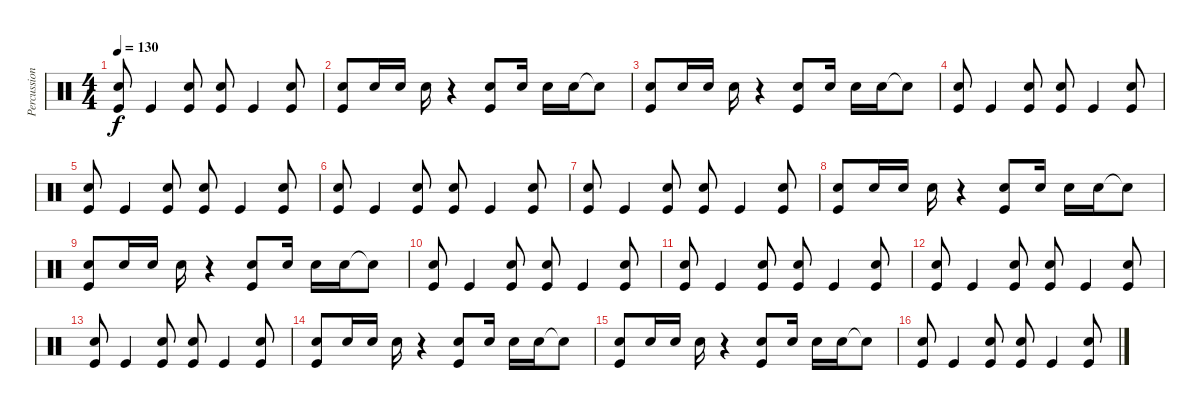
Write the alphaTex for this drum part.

\track ("Percussion" "Percussion") {instrument percussion}
\staff {score}
\articulation defaults
\ts (4 4)
\tempo 130
\clef neutral
\ks c
("Kick (hit)" "Snare (hit) 2").8{dy f} "Kick (hit)".4 ("Kick (hit)" "Snare (hit) 2").8 ("Kick (hit)" "Snare (hit) 2").8 "Kick (hit)".4 ("Kick (hit)" "Snare (hit) 2").8 |
("Kick (hit)" "Snare (hit) 2").8 "Snare (hit) 2".16 "Snare (hit) 2".16 "Snare (hit) 2".16 r.4 ("Kick (hit)" "Snare (hit) 2").8 "Snare (hit) 2".16 "Snare (hit) 2".16 "Snare (hit) 2".16 "Snare (hit)"{t}.8 |
("Kick (hit)" "Snare (hit) 2").8 "Snare (hit) 2".16 "Snare (hit) 2".16 "Snare (hit) 2".16 r.4 ("Kick (hit)" "Snare (hit) 2").8 "Snare (hit) 2".16 "Snare (hit) 2".16 "Snare (hit) 2".16 "Snare (hit)"{t}.8 |
("Kick (hit)" "Snare (hit) 2").8 "Kick (hit)".4 ("Kick (hit)" "Snare (hit) 2").8 ("Kick (hit)" "Snare (hit) 2").8 "Kick (hit)".4 ("Kick (hit)" "Snare (hit) 2").8 |
("Kick (hit)" "Snare (hit) 2").8 "Kick (hit)".4 ("Kick (hit)" "Snare (hit) 2").8 ("Kick (hit)" "Snare (hit) 2").8 "Kick (hit)".4 ("Kick (hit)" "Snare (hit) 2").8 |
("Kick (hit)" "Snare (hit) 2").8 "Kick (hit)".4 ("Kick (hit)" "Snare (hit) 2").8 ("Kick (hit)" "Snare (hit) 2").8 "Kick (hit)".4 ("Kick (hit)" "Snare (hit) 2").8 |
("Kick (hit)" "Snare (hit) 2").8 "Kick (hit)".4 ("Kick (hit)" "Snare (hit) 2").8 ("Kick (hit)" "Snare (hit) 2").8 "Kick (hit)".4 ("Kick (hit)" "Snare (hit) 2").8 |
("Kick (hit)" "Snare (hit) 2").8 "Snare (hit) 2".16 "Snare (hit) 2".16 "Snare (hit) 2".16 r.4 ("Kick (hit)" "Snare (hit) 2").8 "Snare (hit) 2".16 "Snare (hit) 2".16 "Snare (hit) 2".16 "Snare (hit)"{t}.8 |
("Kick (hit)" "Snare (hit) 2").8 "Snare (hit) 2".16 "Snare (hit) 2".16 "Snare (hit) 2".16 r.4 ("Kick (hit)" "Snare (hit) 2").8 "Snare (hit) 2".16 "Snare (hit) 2".16 "Snare (hit) 2".16 "Snare (hit)"{t}.8 |
("Kick (hit)" "Snare (hit) 2").8 "Kick (hit)".4 ("Kick (hit)" "Snare (hit) 2").8 ("Kick (hit)" "Snare (hit) 2").8 "Kick (hit)".4 ("Kick (hit)" "Snare (hit) 2").8 |
("Kick (hit)" "Snare (hit) 2").8 "Kick (hit)".4 ("Kick (hit)" "Snare (hit) 2").8 ("Kick (hit)" "Snare (hit) 2").8 "Kick (hit)".4 ("Kick (hit)" "Snare (hit) 2").8 |
("Kick (hit)" "Snare (hit) 2").8 "Kick (hit)".4 ("Kick (hit)" "Snare (hit) 2").8 ("Kick (hit)" "Snare (hit) 2").8 "Kick (hit)".4 ("Kick (hit)" "Snare (hit) 2").8 |
("Kick (hit)" "Snare (hit) 2").8 "Kick (hit)".4 ("Kick (hit)" "Snare (hit) 2").8 ("Kick (hit)" "Snare (hit) 2").8 "Kick (hit)".4 ("Kick (hit)" "Snare (hit) 2").8 |
("Kick (hit)" "Snare (hit) 2").8 "Snare (hit) 2".16 "Snare (hit) 2".16 "Snare (hit) 2".16 r.4 ("Kick (hit)" "Snare (hit) 2").8 "Snare (hit) 2".16 "Snare (hit) 2".16 "Snare (hit) 2".16 "Snare (hit)"{t}.8 |
("Kick (hit)" "Snare (hit) 2").8 "Snare (hit) 2".16 "Snare (hit) 2".16 "Snare (hit) 2".16 r.4 ("Kick (hit)" "Snare (hit) 2").8 "Snare (hit) 2".16 "Snare (hit) 2".16 "Snare (hit) 2".16 "Snare (hit)"{t}.8 |
("Kick (hit)" "Snare (hit) 2").8 "Kick (hit)".4 ("Kick (hit)" "Snare (hit) 2").8 ("Kick (hit)" "Snare (hit) 2").8 "Kick (hit)".4 ("Kick (hit)" "Snare (hit) 2").8
